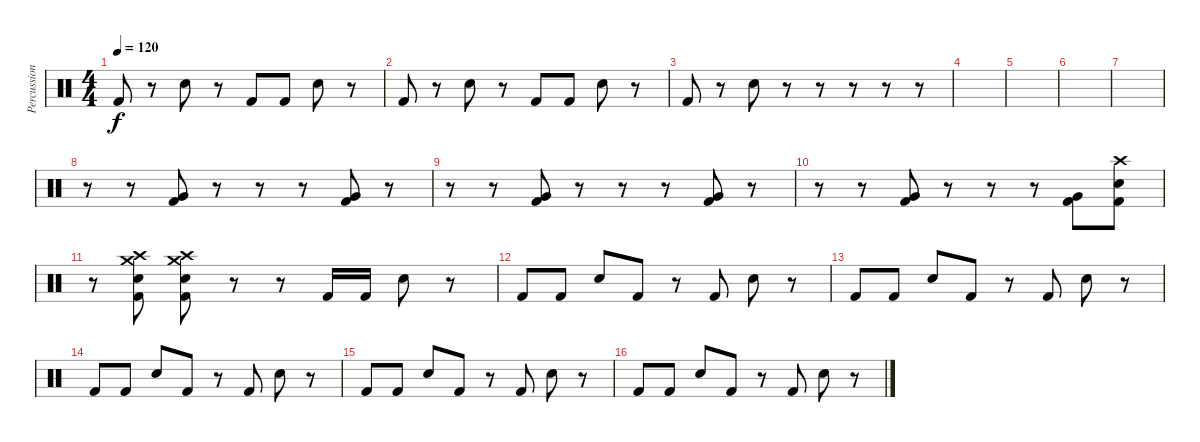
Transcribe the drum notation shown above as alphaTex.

\track ("Percussion" "Percussion") {instrument percussion}
\staff {score}
\articulation defaults
\ts (4 4)
\tempo 120
\clef neutral
\ks c "Kick (hit) 2".8{dy f}
r.8 "Snare (hit) 2".8 r.8 "Kick (hit) 2".8 "Kick (hit) 2".8 "Snare (hit) 2".8 r.8 |
"Kick (hit) 2".8 r.8 "Snare (hit) 2".8 r.8 "Kick (hit) 2".8 "Kick (hit) 2".8 "Snare (hit) 2".8 r.8 |
"Kick (hit) 2".8 r.8 "Snare (hit) 2".8 r.8 r.8 r.8 r.8 r.8 |
|
|
|
|
r.8 r.8 ("Kick (hit) 2" "Very Low Tom (hit)").8 r.8 r.8 r.8 ("Kick (hit) 2" "Very Low Tom (hit)").8 r.8 |
r.8 r.8 ("Kick (hit) 2" "Very Low Tom (hit)").8 r.8 r.8 r.8 ("Kick (hit) 2" "Very Low Tom (hit)").8 r.8 |
r.8 r.8 ("Kick (hit) 2" "Very Low Tom (hit)").8 r.8 r.8 r.8 ("Kick (hit) 2" "Very Low Tom (hit)").8 ("Kick (hit) 2" "Snare (hit) 2" "Crash high (hit)").8 |
r.8 ("Kick (hit) 2" "Snare (hit) 2" "Crash high (hit)" "Crash medium (hit)").8 ("Kick (hit) 2" "Snare (hit) 2" "Crash high (hit)" "Crash medium (hit)").8 r.8 r.8 "Kick (hit) 2".16 "Kick (hit) 2".16 "Snare (hit) 2".8 r.8 |
"Kick (hit) 2".8 "Kick (hit) 2".8 "Snare (hit) 2".8 "Kick (hit) 2".8 r.8 "Kick (hit) 2".8 "Snare (hit) 2".8 r.8 |
"Kick (hit) 2".8 "Kick (hit) 2".8 "Snare (hit) 2".8 "Kick (hit) 2".8 r.8 "Kick (hit) 2".8 "Snare (hit) 2".8 r.8 |
"Kick (hit) 2".8 "Kick (hit) 2".8 "Snare (hit) 2".8 "Kick (hit) 2".8 r.8 "Kick (hit) 2".8 "Snare (hit) 2".8 r.8 |
"Kick (hit) 2".8 "Kick (hit) 2".8 "Snare (hit) 2".8 "Kick (hit) 2".8 r.8 "Kick (hit) 2".8 "Snare (hit) 2".8 r.8 |
"Kick (hit) 2".8 "Kick (hit) 2".8 "Snare (hit) 2".8 "Kick (hit) 2".8 r.8 "Kick (hit) 2".8 "Snare (hit) 2".8 r.8
